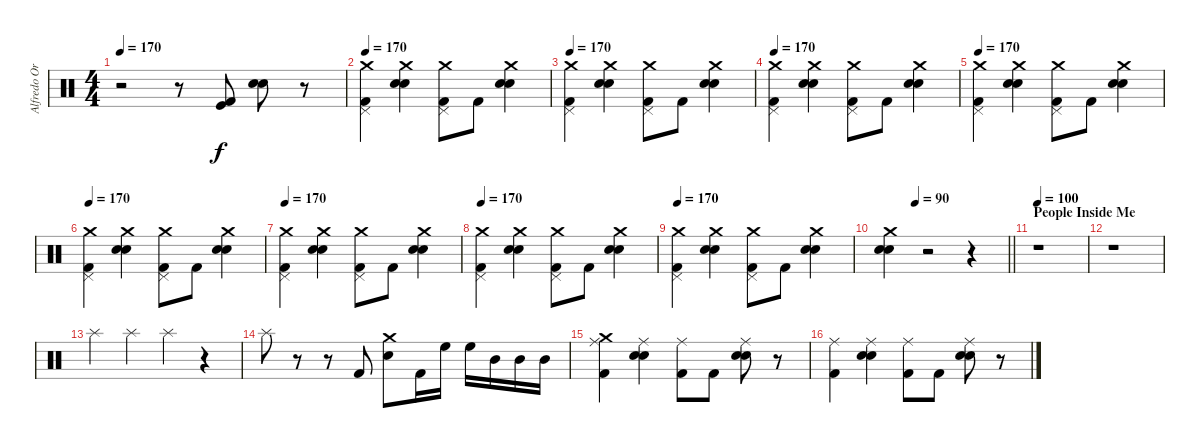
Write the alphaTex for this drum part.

\track ("Alfredo Ortiz (Drums)" "Alfredo Or") {instrument percussion}
\staff {score}
\articulation defaults
\ts (4 4)
\tempo 170
\clef neutral
\ks c
r.2{dy f} r.8 ("Kick (hit) 2" "Kick (hit)").8 ("Snare (hit) 2" "Electric Snare (hit)").8 r.8 |
\tempo 170
("Kick (hit) 2" "Pedal Hi-Hat (hit)" "Crash medium (hit)").4 ("Snare (hit) 2" "Electric Snare (hit)" "Crash medium (hit)").4 ("Kick (hit) 2" "Pedal Hi-Hat (hit)" "Crash medium (hit)").8 "Kick (hit) 2".8 ("Snare (hit) 2" "Electric Snare (hit)" "Crash medium (hit)").4 |
\tempo 170
("Kick (hit) 2" "Pedal Hi-Hat (hit)" "Crash medium (hit)").4 ("Snare (hit) 2" "Electric Snare (hit)" "Crash medium (hit)").4 ("Kick (hit) 2" "Pedal Hi-Hat (hit)" "Crash medium (hit)").8 "Kick (hit) 2".8 ("Snare (hit) 2" "Electric Snare (hit)" "Crash medium (hit)").4 |
\tempo 170
("Kick (hit) 2" "Pedal Hi-Hat (hit)" "Crash medium (hit)").4 ("Snare (hit) 2" "Electric Snare (hit)" "Crash medium (hit)").4 ("Kick (hit) 2" "Pedal Hi-Hat (hit)" "Crash medium (hit)").8 "Kick (hit) 2".8 ("Snare (hit) 2" "Electric Snare (hit)" "Crash medium (hit)").4 |
\tempo 170
("Kick (hit) 2" "Pedal Hi-Hat (hit)" "Crash medium (hit)").4 ("Snare (hit) 2" "Electric Snare (hit)" "Crash medium (hit)").4 ("Kick (hit) 2" "Pedal Hi-Hat (hit)" "Crash medium (hit)").8 "Kick (hit) 2".8 ("Snare (hit) 2" "Electric Snare (hit)" "Crash medium (hit)").4 |
\tempo 170
("Kick (hit) 2" "Pedal Hi-Hat (hit)" "Crash medium (hit)").4 ("Snare (hit) 2" "Electric Snare (hit)" "Crash medium (hit)").4 ("Kick (hit) 2" "Pedal Hi-Hat (hit)" "Crash medium (hit)").8 "Kick (hit) 2".8 ("Snare (hit) 2" "Electric Snare (hit)" "Crash medium (hit)").4 |
\tempo 170
("Kick (hit) 2" "Pedal Hi-Hat (hit)" "Crash medium (hit)").4 ("Snare (hit) 2" "Electric Snare (hit)" "Crash medium (hit)").4 ("Kick (hit) 2" "Pedal Hi-Hat (hit)" "Crash medium (hit)").8 "Kick (hit) 2".8 ("Snare (hit) 2" "Electric Snare (hit)" "Crash medium (hit)").4 |
\tempo 170
("Kick (hit) 2" "Pedal Hi-Hat (hit)" "Crash medium (hit)").4 ("Snare (hit) 2" "Electric Snare (hit)" "Crash medium (hit)").4 ("Kick (hit) 2" "Pedal Hi-Hat (hit)" "Crash medium (hit)").8 "Kick (hit) 2".8 ("Snare (hit) 2" "Electric Snare (hit)" "Crash medium (hit)").4 |
\tempo 170
("Kick (hit) 2" "Pedal Hi-Hat (hit)" "Crash medium (hit)").4 ("Snare (hit) 2" "Electric Snare (hit)" "Crash medium (hit)").4 ("Kick (hit) 2" "Pedal Hi-Hat (hit)" "Crash medium (hit)").8 "Kick (hit) 2".8 ("Snare (hit) 2" "Electric Snare (hit)" "Crash medium (hit)").4 |
\tempo (90 0.25)
\barLineRight lightlight
("Snare (hit) 2" "Electric Snare (hit)" "Crash medium (hit)").4 r.2 r.4 |
\section ("" "People Inside Me")
\tempo 100
r.1 |
r.1 |
"Splash (hit)".4 "Splash (hit)".4 "Splash (hit)".4 r.4 |
"Splash (hit)".8 r.8 r.8 "Kick (hit) 2".8 ("Snare (hit) 2" "Crash medium (hit)").8 "Kick (hit) 2".16 "High Floor Tom (hit)".16 "High Floor Tom (hit)".16 "Mid Tom (hit)".16 "Mid Tom (hit)".16 "Mid Tom (hit)".16 |
("Kick (hit) 2" "Ride (middle)" "Crash medium (hit)").4 ("Snare (hit) 2" "Electric Snare (hit)" "Ride (middle)").4 ("Kick (hit) 2" "Ride (middle)").8 "Kick (hit) 2".8 ("Snare (hit) 2" "Electric Snare (hit)" "Ride (middle)").8 r.8 |
("Kick (hit) 2" "Ride (middle)").4 ("Snare (hit) 2" "Electric Snare (hit)" "Ride (middle)").4 ("Kick (hit) 2" "Ride (middle)").8 "Kick (hit) 2".8 ("Snare (hit) 2" "Electric Snare (hit)" "Ride (middle)").8 r.8
